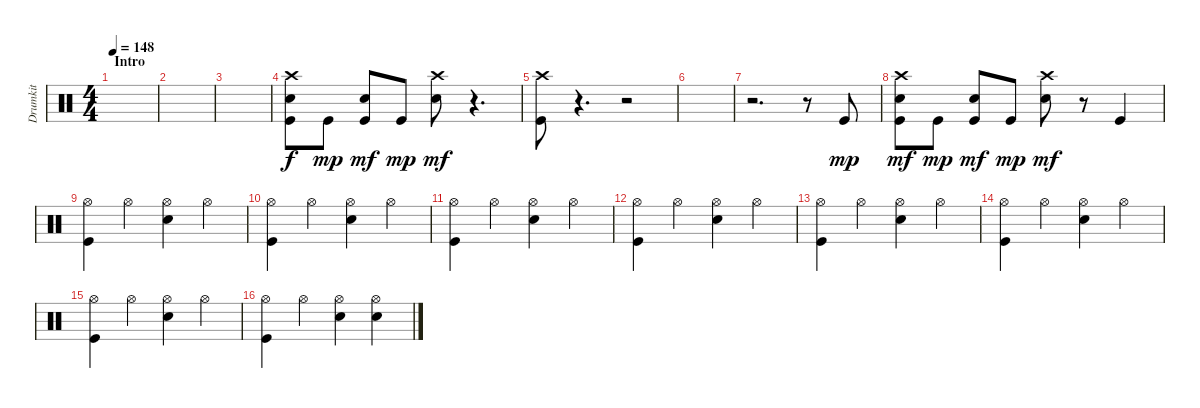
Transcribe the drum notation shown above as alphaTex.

\track ("Drumkit" "Drumkit") {instrument percussion}
\staff {score}
\articulation defaults
\ts (4 4)
\section ("" "Intro")
\tempo 148
\clef neutral
\ks c
|
|
|
("Snare (hit) 2" "Kick (hit)" "Crash high (hit)").8 "Kick (hit)".8{dy mp} ("Snare (hit) 2" "Kick (hit)").8{dy mf} "Kick (hit)".8{dy mp} ("Snare (hit) 2" "Crash high (hit)").8{dy mf} r.4{d} |
("Crash high (hit)" "Kick (hit)").8 r.4{d} r.2 |
|
r.2{d} r.8 "Kick (hit)".8{dy mp} |
("Snare (hit) 2" "Kick (hit)" "Crash high (hit)").8{dy mf} "Kick (hit)".8{dy mp} ("Snare (hit) 2" "Kick (hit)").8{dy mf} "Kick (hit)".8{dy mp} ("Snare (hit) 2" "Crash high (hit)").8{dy mf} r.8 "Kick (hit)".4 |
("Kick (hit)" "Hi-Hat (open)").4 "Hi-Hat (open)".4 ("Snare (hit) 2" "Hi-Hat (open)").4 "Hi-Hat (open)".4 |
("Kick (hit)" "Hi-Hat (open)").4 "Hi-Hat (open)".4 ("Snare (hit) 2" "Hi-Hat (open)").4 "Hi-Hat (open)".4 |
("Kick (hit)" "Hi-Hat (open)").4 "Hi-Hat (open)".4 ("Snare (hit) 2" "Hi-Hat (open)").4 "Hi-Hat (open)".4 |
("Kick (hit)" "Hi-Hat (open)").4 "Hi-Hat (open)".4 ("Snare (hit) 2" "Hi-Hat (open)").4 "Hi-Hat (open)".4 |
("Kick (hit)" "Hi-Hat (open)").4 "Hi-Hat (open)".4 ("Snare (hit) 2" "Hi-Hat (open)").4 "Hi-Hat (open)".4 |
("Kick (hit)" "Hi-Hat (open)").4 "Hi-Hat (open)".4 ("Snare (hit) 2" "Hi-Hat (open)").4 "Hi-Hat (open)".4 |
("Kick (hit)" "Hi-Hat (open)").4 "Hi-Hat (open)".4 ("Snare (hit) 2" "Hi-Hat (open)").4 "Hi-Hat (open)".4 |
("Kick (hit)" "Hi-Hat (open)").4 "Hi-Hat (open)".4 ("Snare (hit) 2" "Hi-Hat (open)").4 ("Hi-Hat (open)" "Snare (hit) 2").4
